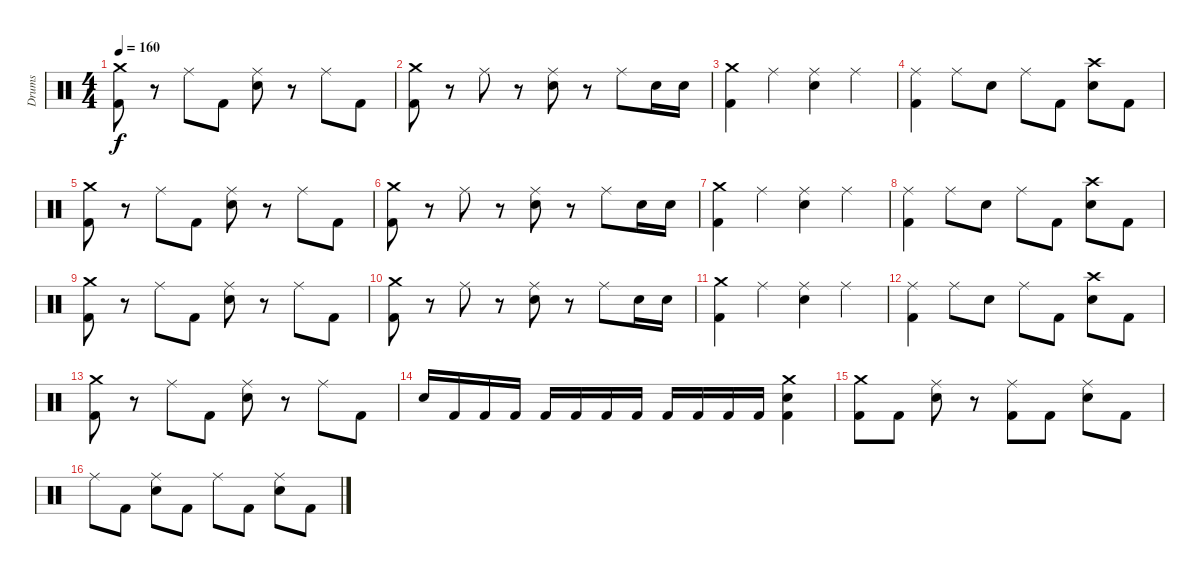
\track ("Drums" "Drums") {instrument percussion}
\staff {score}
\articulation defaults
\ts (4 4)
\tempo 160
\clef neutral
\ks c
("Crash medium (hit)" "Kick (hit) 2").8{dy f} r.8 "Ride (middle)".8 "Kick (hit) 2".8 ("Ride (middle)" "Electric Snare (hit)").8 r.8 "Ride (middle)".8 "Kick (hit) 2".8 |
("Crash medium (hit)" "Kick (hit) 2").8 r.8 "Ride (middle)".8 r.8 ("Ride (middle)" "Electric Snare (hit)").8 r.8 "Ride (middle)".8 "Electric Snare (hit)".16 "Electric Snare (hit)".16 |
("Crash medium (hit)" "Kick (hit) 2").4 "Ride (middle)".4 ("Ride (middle)" "Electric Snare (hit)").4 "Ride (middle)".4 |
("Ride (middle)" "Kick (hit) 2").4 "Ride (middle)".8 "Electric Snare (hit)".8 "Ride (middle)".8 "Kick (hit) 2".8 ("Crash high (hit)" "Electric Snare (hit)").8 "Kick (hit) 2".8 |
("Crash medium (hit)" "Kick (hit) 2").8 r.8 "Ride (middle)".8 "Kick (hit) 2".8 ("Ride (middle)" "Electric Snare (hit)").8 r.8 "Ride (middle)".8 "Kick (hit) 2".8 |
("Crash medium (hit)" "Kick (hit) 2").8 r.8 "Ride (middle)".8 r.8 ("Ride (middle)" "Electric Snare (hit)").8 r.8 "Ride (middle)".8 "Electric Snare (hit)".16 "Electric Snare (hit)".16 |
("Crash medium (hit)" "Kick (hit) 2").4 "Ride (middle)".4 ("Ride (middle)" "Electric Snare (hit)").4 "Ride (middle)".4 |
("Ride (middle)" "Kick (hit) 2").4 "Ride (middle)".8 "Electric Snare (hit)".8 "Ride (middle)".8 "Kick (hit) 2".8 ("Crash high (hit)" "Electric Snare (hit)").8 "Kick (hit) 2".8 |
("Crash medium (hit)" "Kick (hit) 2").8 r.8 "Ride (middle)".8 "Kick (hit) 2".8 ("Ride (middle)" "Electric Snare (hit)").8 r.8 "Ride (middle)".8 "Kick (hit) 2".8 |
("Crash medium (hit)" "Kick (hit) 2").8 r.8 "Ride (middle)".8 r.8 ("Ride (middle)" "Electric Snare (hit)").8 r.8 "Ride (middle)".8 "Electric Snare (hit)".16 "Electric Snare (hit)".16 |
("Crash medium (hit)" "Kick (hit) 2").4 "Ride (middle)".4 ("Ride (middle)" "Electric Snare (hit)").4 "Ride (middle)".4 |
("Ride (middle)" "Kick (hit) 2").4 "Ride (middle)".8 "Electric Snare (hit)".8 "Ride (middle)".8 "Kick (hit) 2".8 ("Crash high (hit)" "Electric Snare (hit)").8 "Kick (hit) 2".8 |
("Crash medium (hit)" "Kick (hit) 2").8 r.8 "Ride (middle)".8 "Kick (hit) 2".8 ("Ride (middle)" "Electric Snare (hit)").8 r.8 "Ride (middle)".8 "Kick (hit) 2".8 |
"Electric Snare (hit)".16 "Kick (hit) 2".16 "Kick (hit) 2".16 "Kick (hit) 2".16 "Kick (hit) 2".16 "Kick (hit) 2".16 "Kick (hit) 2".16 "Kick (hit) 2".16 "Kick (hit) 2".16 "Kick (hit) 2".16 "Kick (hit) 2".16 "Kick (hit) 2".16 ("Crash medium (hit)" "Electric Snare (hit)" "Kick (hit) 2").4 |
\section ("" "")
("Crash medium (hit)" "Kick (hit) 2").8 "Kick (hit) 2".8 ("Ride (middle)" "Electric Snare (hit)").8 r.8 ("Ride (middle)" "Kick (hit) 2").8 "Kick (hit) 2".8 ("Ride (middle)" "Electric Snare (hit)").8 "Kick (hit) 2".8 |
"Ride (middle)".8 "Kick (hit) 2".8 ("Ride (middle)" "Electric Snare (hit)").8 "Kick (hit) 2".8 "Ride (middle)".8 "Kick (hit) 2".8 ("Ride (middle)" "Electric Snare (hit)").8 "Kick (hit) 2".8
